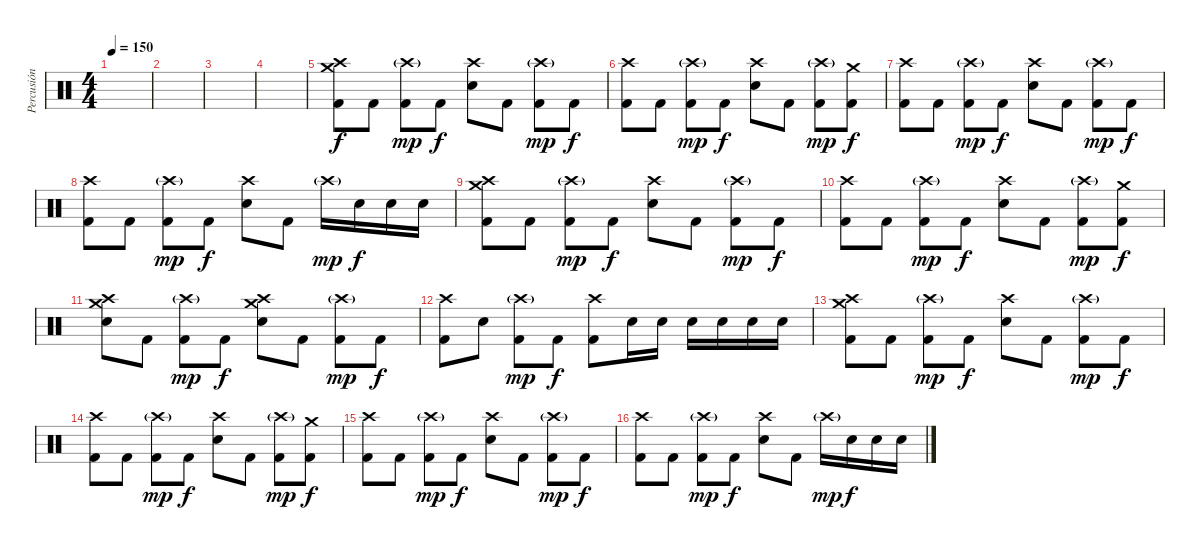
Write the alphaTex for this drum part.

\track ("Percusión" "Percusión") {instrument percussion}
\staff {score}
\articulation defaults
\ts (4 4)
\tempo 150
\clef neutral
\ks c
|
|
|
|
("Crash medium (hit)" "Crash high (hit)" "Kick (hit) 2").8 "Kick (hit) 2".8 ("Crash high (hit)"{g} "Kick (hit) 2").8{dy mp} "Kick (hit) 2".8{dy f} ("Crash high (hit)" "Electric Snare (hit)").8 "Kick (hit) 2".8 ("Crash high (hit)"{g} "Kick (hit) 2").8{dy mp} "Kick (hit) 2".8{dy f} |
("Crash high (hit)" "Kick (hit) 2").8 "Kick (hit) 2".8 ("Crash high (hit)"{g} "Kick (hit) 2").8{dy mp} "Kick (hit) 2".8{dy f} ("Crash high (hit)" "Electric Snare (hit)").8 "Kick (hit) 2".8 ("Crash high (hit)"{g} "Kick (hit) 2").8{dy mp} ("Crash medium (hit)" "Kick (hit) 2").8{dy f} |
("Crash high (hit)" "Kick (hit) 2").8 "Kick (hit) 2".8 ("Crash high (hit)"{g} "Kick (hit) 2").8{dy mp} "Kick (hit) 2".8{dy f} ("Crash high (hit)" "Electric Snare (hit)").8 "Kick (hit) 2".8 ("Crash high (hit)"{g} "Kick (hit) 2").8{dy mp} "Kick (hit) 2".8{dy f} |
("Crash high (hit)" "Kick (hit) 2").8 "Kick (hit) 2".8 ("Crash high (hit)"{g} "Kick (hit) 2").8{dy mp} "Kick (hit) 2".8{dy f} ("Crash high (hit)" "Electric Snare (hit)").8 "Kick (hit) 2".8 "Crash high (hit)"{g}.16{dy mp} "Electric Snare (hit)".16{dy f} "Electric Snare (hit)".16 "Electric Snare (hit)".16 |
("Crash medium (hit)" "Crash high (hit)" "Kick (hit) 2").8 "Kick (hit) 2".8 ("Crash high (hit)"{g} "Kick (hit) 2").8{dy mp} "Kick (hit) 2".8{dy f} ("Crash high (hit)" "Electric Snare (hit)").8 "Kick (hit) 2".8 ("Crash high (hit)"{g} "Kick (hit) 2").8{dy mp} "Kick (hit) 2".8{dy f} |
("Crash high (hit)" "Kick (hit) 2").8 "Kick (hit) 2".8 ("Crash high (hit)"{g} "Kick (hit) 2").8{dy mp} "Kick (hit) 2".8{dy f} ("Crash high (hit)" "Electric Snare (hit)").8 "Kick (hit) 2".8 ("Crash high (hit)"{g} "Kick (hit) 2").8{dy mp} ("Crash medium (hit)" "Kick (hit) 2").8{dy f} |
("Crash medium (hit)" "Crash high (hit)" "Electric Snare (hit)").8 "Kick (hit) 2".8 ("Crash high (hit)"{g} "Kick (hit) 2").8{dy mp} "Kick (hit) 2".8{dy f} ("Crash medium (hit)" "Crash high (hit)" "Electric Snare (hit)").8 "Kick (hit) 2".8 ("Crash high (hit)"{g} "Kick (hit) 2").8{dy mp} "Kick (hit) 2".8{dy f} |
("Crash high (hit)" "Kick (hit) 2").8 "Electric Snare (hit)".8 ("Crash high (hit)"{g} "Kick (hit) 2").8{dy mp} "Kick (hit) 2".8{dy f} ("Crash high (hit)" "Kick (hit) 2").8 "Electric Snare (hit)".16 "Electric Snare (hit)".16 "Electric Snare (hit)".16 "Electric Snare (hit)".16 "Electric Snare (hit)".16 "Electric Snare (hit)".16 |
("Crash medium (hit)" "Crash high (hit)" "Kick (hit) 2").8 "Kick (hit) 2".8 ("Crash high (hit)"{g} "Kick (hit) 2").8{dy mp} "Kick (hit) 2".8{dy f} ("Crash high (hit)" "Electric Snare (hit)").8 "Kick (hit) 2".8 ("Crash high (hit)"{g} "Kick (hit) 2").8{dy mp} "Kick (hit) 2".8{dy f} |
("Crash high (hit)" "Kick (hit) 2").8 "Kick (hit) 2".8 ("Crash high (hit)"{g} "Kick (hit) 2").8{dy mp} "Kick (hit) 2".8{dy f} ("Crash high (hit)" "Electric Snare (hit)").8 "Kick (hit) 2".8 ("Crash high (hit)"{g} "Kick (hit) 2").8{dy mp} ("Crash medium (hit)" "Kick (hit) 2").8{dy f} |
("Crash high (hit)" "Kick (hit) 2").8 "Kick (hit) 2".8 ("Crash high (hit)"{g} "Kick (hit) 2").8{dy mp} "Kick (hit) 2".8{dy f} ("Crash high (hit)" "Electric Snare (hit)").8 "Kick (hit) 2".8 ("Crash high (hit)"{g} "Kick (hit) 2").8{dy mp} "Kick (hit) 2".8{dy f} |
("Crash high (hit)" "Kick (hit) 2").8 "Kick (hit) 2".8 ("Crash high (hit)"{g} "Kick (hit) 2").8{dy mp} "Kick (hit) 2".8{dy f} ("Crash high (hit)" "Electric Snare (hit)").8 "Kick (hit) 2".8 "Crash high (hit)"{g}.16{dy mp} "Electric Snare (hit)".16{dy f} "Electric Snare (hit)".16 "Electric Snare (hit)".16
